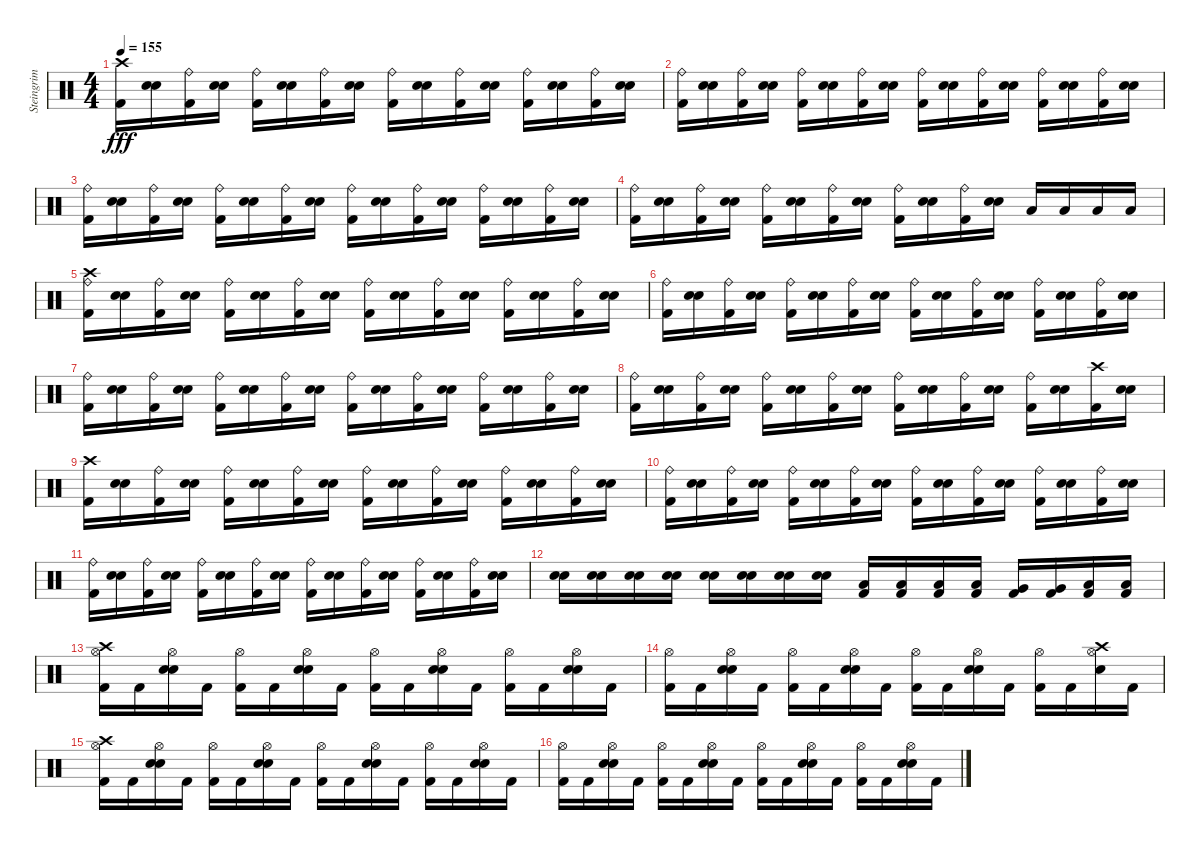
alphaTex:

\track ("Steingrim" "Steingrim") {instrument percussion}
\staff {score}
\articulation defaults
\ts (4 4)
\tempo 155
\clef neutral
\ks c
("Kick (hit) 2" "Crash high (hit)").16{dy fff} ("Snare (hit) 2" "Electric Snare (hit)").16 ("Kick (hit) 2" "Ride (bell)").16 ("Snare (hit) 2" "Electric Snare (hit)").16 ("Kick (hit) 2" "Ride (bell)").16 ("Snare (hit) 2" "Electric Snare (hit)").16 ("Kick (hit) 2" "Ride (bell)").16 ("Snare (hit) 2" "Electric Snare (hit)").16 ("Kick (hit) 2" "Ride (bell)").16 ("Snare (hit) 2" "Electric Snare (hit)").16 ("Kick (hit) 2" "Ride (bell)").16 ("Snare (hit) 2" "Electric Snare (hit)").16 ("Kick (hit) 2" "Ride (bell)").16 ("Snare (hit) 2" "Electric Snare (hit)").16 ("Kick (hit) 2" "Ride (bell)").16 ("Snare (hit) 2" "Electric Snare (hit)").16 |
("Kick (hit) 2" "Ride (bell)").16 ("Snare (hit) 2" "Electric Snare (hit)").16 ("Kick (hit) 2" "Ride (bell)").16 ("Snare (hit) 2" "Electric Snare (hit)").16 ("Kick (hit) 2" "Ride (bell)").16 ("Snare (hit) 2" "Electric Snare (hit)").16 ("Kick (hit) 2" "Ride (bell)").16 ("Snare (hit) 2" "Electric Snare (hit)").16 ("Kick (hit) 2" "Ride (bell)").16 ("Snare (hit) 2" "Electric Snare (hit)").16 ("Kick (hit) 2" "Ride (bell)").16 ("Snare (hit) 2" "Electric Snare (hit)").16 ("Kick (hit) 2" "Ride (bell)").16 ("Snare (hit) 2" "Electric Snare (hit)").16 ("Kick (hit) 2" "Ride (bell)").16 ("Snare (hit) 2" "Electric Snare (hit)").16 |
("Kick (hit) 2" "Ride (bell)").16 ("Snare (hit) 2" "Electric Snare (hit)").16 ("Kick (hit) 2" "Ride (bell)").16 ("Snare (hit) 2" "Electric Snare (hit)").16 ("Kick (hit) 2" "Ride (bell)").16 ("Snare (hit) 2" "Electric Snare (hit)").16 ("Kick (hit) 2" "Ride (bell)").16 ("Snare (hit) 2" "Electric Snare (hit)").16 ("Kick (hit) 2" "Ride (bell)").16 ("Snare (hit) 2" "Electric Snare (hit)").16 ("Kick (hit) 2" "Ride (bell)").16 ("Snare (hit) 2" "Electric Snare (hit)").16 ("Kick (hit) 2" "Ride (bell)").16 ("Snare (hit) 2" "Electric Snare (hit)").16 ("Kick (hit) 2" "Ride (bell)").16 ("Snare (hit) 2" "Electric Snare (hit)").16 |
("Kick (hit) 2" "Ride (bell)").16 ("Snare (hit) 2" "Electric Snare (hit)").16 ("Kick (hit) 2" "Ride (bell)").16 ("Snare (hit) 2" "Electric Snare (hit)").16 ("Kick (hit) 2" "Ride (bell)").16 ("Snare (hit) 2" "Electric Snare (hit)").16 ("Kick (hit) 2" "Ride (bell)").16 ("Snare (hit) 2" "Electric Snare (hit)").16 ("Kick (hit) 2" "Ride (bell)").16 ("Snare (hit) 2" "Electric Snare (hit)").16 ("Kick (hit) 2" "Ride (bell)").16 ("Snare (hit) 2" "Electric Snare (hit)").16 "Low Tom (hit)".16 "Low Tom (hit)".16 "Low Tom (hit)".16 "Low Tom (hit)".16 |
("Kick (hit) 2" "Ride (bell)" "Crash high (hit)").16 ("Snare (hit) 2" "Electric Snare (hit)").16 ("Kick (hit) 2" "Ride (bell)").16 ("Snare (hit) 2" "Electric Snare (hit)").16 ("Kick (hit) 2" "Ride (bell)").16 ("Snare (hit) 2" "Electric Snare (hit)").16 ("Kick (hit) 2" "Ride (bell)").16 ("Snare (hit) 2" "Electric Snare (hit)").16 ("Kick (hit) 2" "Ride (bell)").16 ("Snare (hit) 2" "Electric Snare (hit)").16 ("Kick (hit) 2" "Ride (bell)").16 ("Snare (hit) 2" "Electric Snare (hit)").16 ("Kick (hit) 2" "Ride (bell)").16 ("Snare (hit) 2" "Electric Snare (hit)").16 ("Kick (hit) 2" "Ride (bell)").16 ("Snare (hit) 2" "Electric Snare (hit)").16 |
("Kick (hit) 2" "Ride (bell)").16 ("Snare (hit) 2" "Electric Snare (hit)").16 ("Kick (hit) 2" "Ride (bell)").16 ("Snare (hit) 2" "Electric Snare (hit)").16 ("Kick (hit) 2" "Ride (bell)").16 ("Snare (hit) 2" "Electric Snare (hit)").16 ("Kick (hit) 2" "Ride (bell)").16 ("Snare (hit) 2" "Electric Snare (hit)").16 ("Kick (hit) 2" "Ride (bell)").16 ("Snare (hit) 2" "Electric Snare (hit)").16 ("Kick (hit) 2" "Ride (bell)").16 ("Snare (hit) 2" "Electric Snare (hit)").16 ("Kick (hit) 2" "Ride (bell)").16 ("Snare (hit) 2" "Electric Snare (hit)").16 ("Kick (hit) 2" "Ride (bell)").16 ("Snare (hit) 2" "Electric Snare (hit)").16 |
("Kick (hit) 2" "Ride (bell)").16 ("Snare (hit) 2" "Electric Snare (hit)").16 ("Kick (hit) 2" "Ride (bell)").16 ("Snare (hit) 2" "Electric Snare (hit)").16 ("Kick (hit) 2" "Ride (bell)").16 ("Snare (hit) 2" "Electric Snare (hit)").16 ("Kick (hit) 2" "Ride (bell)").16 ("Snare (hit) 2" "Electric Snare (hit)").16 ("Kick (hit) 2" "Ride (bell)").16 ("Snare (hit) 2" "Electric Snare (hit)").16 ("Kick (hit) 2" "Ride (bell)").16 ("Snare (hit) 2" "Electric Snare (hit)").16 ("Kick (hit) 2" "Ride (bell)").16 ("Snare (hit) 2" "Electric Snare (hit)").16 ("Kick (hit) 2" "Ride (bell)").16 ("Snare (hit) 2" "Electric Snare (hit)").16 |
("Kick (hit) 2" "Ride (bell)").16 ("Snare (hit) 2" "Electric Snare (hit)").16 ("Kick (hit) 2" "Ride (bell)").16 ("Snare (hit) 2" "Electric Snare (hit)").16 ("Kick (hit) 2" "Ride (bell)").16 ("Snare (hit) 2" "Electric Snare (hit)").16 ("Kick (hit) 2" "Ride (bell)").16 ("Snare (hit) 2" "Electric Snare (hit)").16 ("Kick (hit) 2" "Ride (bell)").16 ("Snare (hit) 2" "Electric Snare (hit)").16 ("Kick (hit) 2" "Ride (bell)").16 ("Snare (hit) 2" "Electric Snare (hit)").16 ("Kick (hit) 2" "Ride (bell)").16 ("Snare (hit) 2" "Electric Snare (hit)").16 ("Kick (hit) 2" "Crash high (hit)").16 ("Snare (hit) 2" "Electric Snare (hit)").16 |
("Kick (hit) 2" "Crash high (hit)").16 ("Snare (hit) 2" "Electric Snare (hit)").16 ("Kick (hit) 2" "Ride (bell)").16 ("Snare (hit) 2" "Electric Snare (hit)").16 ("Kick (hit) 2" "Ride (bell)").16 ("Snare (hit) 2" "Electric Snare (hit)").16 ("Kick (hit) 2" "Ride (bell)").16 ("Snare (hit) 2" "Electric Snare (hit)").16 ("Kick (hit) 2" "Ride (bell)").16 ("Snare (hit) 2" "Electric Snare (hit)").16 ("Kick (hit) 2" "Ride (bell)").16 ("Snare (hit) 2" "Electric Snare (hit)").16 ("Kick (hit) 2" "Ride (bell)").16 ("Snare (hit) 2" "Electric Snare (hit)").16 ("Kick (hit) 2" "Ride (bell)").16 ("Snare (hit) 2" "Electric Snare (hit)").16 |
("Kick (hit) 2" "Ride (bell)").16 ("Snare (hit) 2" "Electric Snare (hit)").16 ("Kick (hit) 2" "Ride (bell)").16 ("Snare (hit) 2" "Electric Snare (hit)").16 ("Kick (hit) 2" "Ride (bell)").16 ("Snare (hit) 2" "Electric Snare (hit)").16 ("Kick (hit) 2" "Ride (bell)").16 ("Snare (hit) 2" "Electric Snare (hit)").16 ("Kick (hit) 2" "Ride (bell)").16 ("Snare (hit) 2" "Electric Snare (hit)").16 ("Kick (hit) 2" "Ride (bell)").16 ("Snare (hit) 2" "Electric Snare (hit)").16 ("Kick (hit) 2" "Ride (bell)").16 ("Snare (hit) 2" "Electric Snare (hit)").16 ("Kick (hit) 2" "Ride (bell)").16 ("Snare (hit) 2" "Electric Snare (hit)").16 |
("Kick (hit) 2" "Ride (bell)").16 ("Snare (hit) 2" "Electric Snare (hit)").16 ("Kick (hit) 2" "Ride (bell)").16 ("Snare (hit) 2" "Electric Snare (hit)").16 ("Kick (hit) 2" "Ride (bell)").16 ("Snare (hit) 2" "Electric Snare (hit)").16 ("Kick (hit) 2" "Ride (bell)").16 ("Snare (hit) 2" "Electric Snare (hit)").16 ("Kick (hit) 2" "Ride (bell)").16 ("Snare (hit) 2" "Electric Snare (hit)").16 ("Kick (hit) 2" "Ride (bell)").16 ("Snare (hit) 2" "Electric Snare (hit)").16 ("Kick (hit) 2" "Ride (bell)").16 ("Snare (hit) 2" "Electric Snare (hit)").16 ("Kick (hit) 2" "Ride (bell)").16 ("Snare (hit) 2" "Electric Snare (hit)").16 |
("Snare (hit) 2" "Electric Snare (hit)").16 ("Snare (hit) 2" "Electric Snare (hit)").16 ("Snare (hit) 2" "Electric Snare (hit)").16 ("Snare (hit) 2" "Electric Snare (hit)").16 ("Snare (hit) 2" "Electric Snare (hit)").16 ("Snare (hit) 2" "Electric Snare (hit)").16 ("Snare (hit) 2" "Electric Snare (hit)").16 ("Snare (hit) 2" "Electric Snare (hit)").16 ("Low Tom (hit)" "Kick (hit) 2").16 ("Low Tom (hit)" "Kick (hit) 2").16 ("Low Tom (hit)" "Kick (hit) 2").16 ("Low Tom (hit)" "Kick (hit) 2").16 ("Very Low Tom (hit)" "Kick (hit) 2").16 ("Very Low Tom (hit)" "Kick (hit) 2").16 ("Low Floor Tom (hit)" "Kick (hit) 2").16 ("Low Floor Tom (hit)" "Kick (hit) 2").16 |
("Kick (hit) 2" "Hi-Hat (open)" "Crash high (hit)").16 "Kick (hit) 2".16 ("Snare (hit) 2" "Electric Snare (hit)" "Hi-Hat (open)").16 "Kick (hit) 2".16 ("Kick (hit) 2" "Hi-Hat (open)").16 "Kick (hit) 2".16 ("Snare (hit) 2" "Electric Snare (hit)" "Hi-Hat (open)").16 "Kick (hit) 2".16 ("Kick (hit) 2" "Hi-Hat (open)").16 "Kick (hit) 2".16 ("Snare (hit) 2" "Electric Snare (hit)" "Hi-Hat (open)").16 "Kick (hit) 2".16 ("Kick (hit) 2" "Hi-Hat (open)").16 "Kick (hit) 2".16 ("Snare (hit) 2" "Electric Snare (hit)" "Hi-Hat (open)").16 "Kick (hit) 2".16 |
("Kick (hit) 2" "Hi-Hat (open)").16 "Kick (hit) 2".16 ("Snare (hit) 2" "Electric Snare (hit)" "Hi-Hat (open)").16 "Kick (hit) 2".16 ("Kick (hit) 2" "Hi-Hat (open)").16 "Kick (hit) 2".16 ("Snare (hit) 2" "Electric Snare (hit)" "Hi-Hat (open)").16 "Kick (hit) 2".16 ("Kick (hit) 2" "Hi-Hat (open)").16 "Kick (hit) 2".16 ("Snare (hit) 2" "Electric Snare (hit)" "Hi-Hat (open)").16 "Kick (hit) 2".16 ("Kick (hit) 2" "Hi-Hat (open)").16 "Kick (hit) 2".16 ("Snare (hit) 2" "Crash high (hit)" "Hi-Hat (open)").16 "Kick (hit) 2".16 |
("Kick (hit) 2" "Hi-Hat (open)" "Crash high (hit)").16 "Kick (hit) 2".16 ("Snare (hit) 2" "Electric Snare (hit)" "Hi-Hat (open)").16 "Kick (hit) 2".16 ("Kick (hit) 2" "Hi-Hat (open)").16 "Kick (hit) 2".16 ("Snare (hit) 2" "Electric Snare (hit)" "Hi-Hat (open)").16 "Kick (hit) 2".16 ("Kick (hit) 2" "Hi-Hat (open)").16 "Kick (hit) 2".16 ("Snare (hit) 2" "Electric Snare (hit)" "Hi-Hat (open)").16 "Kick (hit) 2".16 ("Kick (hit) 2" "Hi-Hat (open)").16 "Kick (hit) 2".16 ("Snare (hit) 2" "Electric Snare (hit)" "Hi-Hat (open)").16 "Kick (hit) 2".16 |
("Kick (hit) 2" "Hi-Hat (open)").16 "Kick (hit) 2".16 ("Snare (hit) 2" "Electric Snare (hit)" "Hi-Hat (open)").16 "Kick (hit) 2".16 ("Kick (hit) 2" "Hi-Hat (open)").16 "Kick (hit) 2".16 ("Snare (hit) 2" "Electric Snare (hit)" "Hi-Hat (open)").16 "Kick (hit) 2".16 ("Kick (hit) 2" "Hi-Hat (open)").16 "Kick (hit) 2".16 ("Snare (hit) 2" "Electric Snare (hit)" "Hi-Hat (open)").16 "Kick (hit) 2".16 ("Kick (hit) 2" "Hi-Hat (open)").16 "Kick (hit) 2".16 ("Snare (hit) 2" "Electric Snare (hit)" "Hi-Hat (open)").16 "Kick (hit) 2".16
